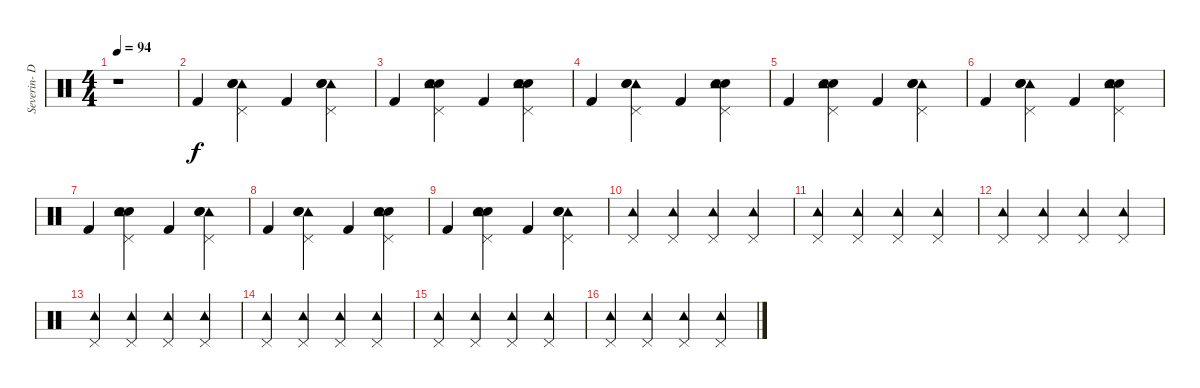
\track ("Severin- Drums" "Severin- D") {instrument percussion}
\staff {score}
\articulation defaults
\ts (4 4)
\tempo 94
\clef neutral
\ks c
r.1{dy f} |
"Kick (hit) 2".4 ("Tambourine (hit)" "Pedal Hi-Hat (hit)" "Electric Snare (hit)" "Snare (hit) 2").4 "Kick (hit) 2".4 ("Tambourine (hit)" "Pedal Hi-Hat (hit)" "Electric Snare (hit)" "Snare (hit) 2").4 |
"Kick (hit) 2".4 ("Snare (hit) 2" "Electric Snare (hit)" "Pedal Hi-Hat (hit)" "Tambourine (hit)").4 "Kick (hit) 2".4 ("Pedal Hi-Hat (hit)" "Snare (hit) 2" "Electric Snare (hit)" "Tambourine (hit)").4 |
"Kick (hit) 2".4 ("Tambourine (hit)" "Pedal Hi-Hat (hit)" "Electric Snare (hit)" "Snare (hit) 2").4 "Kick (hit) 2".4 ("Snare (hit) 2" "Electric Snare (hit)" "Pedal Hi-Hat (hit)" "Tambourine (hit)").4 |
"Kick (hit) 2".4 ("Snare (hit) 2" "Electric Snare (hit)" "Pedal Hi-Hat (hit)" "Tambourine (hit)").4 "Kick (hit) 2".4 ("Tambourine (hit)" "Electric Snare (hit)" "Snare (hit) 2" "Pedal Hi-Hat (hit)").4 |
"Kick (hit) 2".4 ("Tambourine (hit)" "Pedal Hi-Hat (hit)" "Electric Snare (hit)" "Snare (hit) 2").4 "Kick (hit) 2".4 ("Snare (hit) 2" "Electric Snare (hit)" "Pedal Hi-Hat (hit)" "Tambourine (hit)").4 |
"Kick (hit) 2".4 ("Snare (hit) 2" "Electric Snare (hit)" "Pedal Hi-Hat (hit)" "Tambourine (hit)").4 "Kick (hit) 2".4 ("Tambourine (hit)" "Electric Snare (hit)" "Snare (hit) 2" "Pedal Hi-Hat (hit)").4 |
"Kick (hit) 2".4 ("Tambourine (hit)" "Pedal Hi-Hat (hit)" "Electric Snare (hit)" "Snare (hit) 2").4 "Kick (hit) 2".4 ("Snare (hit) 2" "Electric Snare (hit)" "Pedal Hi-Hat (hit)" "Tambourine (hit)").4 |
"Kick (hit) 2".4 ("Snare (hit) 2" "Electric Snare (hit)" "Pedal Hi-Hat (hit)" "Tambourine (hit)").4 "Kick (hit) 2".4 ("Tambourine (hit)" "Electric Snare (hit)" "Snare (hit) 2" "Pedal Hi-Hat (hit)").4 |
("Tambourine (hit)" "Pedal Hi-Hat (hit)").4 ("Tambourine (hit)" "Pedal Hi-Hat (hit)").4 ("Tambourine (hit)" "Pedal Hi-Hat (hit)").4 ("Pedal Hi-Hat (hit)" "Tambourine (hit)").4 |
("Tambourine (hit)" "Pedal Hi-Hat (hit)").4 ("Pedal Hi-Hat (hit)" "Tambourine (hit)").4 ("Pedal Hi-Hat (hit)" "Tambourine (hit)").4 ("Tambourine (hit)" "Pedal Hi-Hat (hit)").4 |
("Tambourine (hit)" "Pedal Hi-Hat (hit)").4 ("Tambourine (hit)" "Pedal Hi-Hat (hit)").4 ("Tambourine (hit)" "Pedal Hi-Hat (hit)").4 ("Pedal Hi-Hat (hit)" "Tambourine (hit)").4 |
("Tambourine (hit)" "Pedal Hi-Hat (hit)").4 ("Pedal Hi-Hat (hit)" "Tambourine (hit)").4 ("Pedal Hi-Hat (hit)" "Tambourine (hit)").4 ("Tambourine (hit)" "Pedal Hi-Hat (hit)").4 |
("Tambourine (hit)" "Pedal Hi-Hat (hit)").4 ("Tambourine (hit)" "Pedal Hi-Hat (hit)").4 ("Tambourine (hit)" "Pedal Hi-Hat (hit)").4 ("Pedal Hi-Hat (hit)" "Tambourine (hit)").4 |
("Tambourine (hit)" "Pedal Hi-Hat (hit)").4 ("Pedal Hi-Hat (hit)" "Tambourine (hit)").4 ("Pedal Hi-Hat (hit)" "Tambourine (hit)").4 ("Tambourine (hit)" "Pedal Hi-Hat (hit)").4 |
("Tambourine (hit)" "Pedal Hi-Hat (hit)").4 ("Tambourine (hit)" "Pedal Hi-Hat (hit)").4 ("Tambourine (hit)" "Pedal Hi-Hat (hit)").4 ("Pedal Hi-Hat (hit)" "Tambourine (hit)").4
